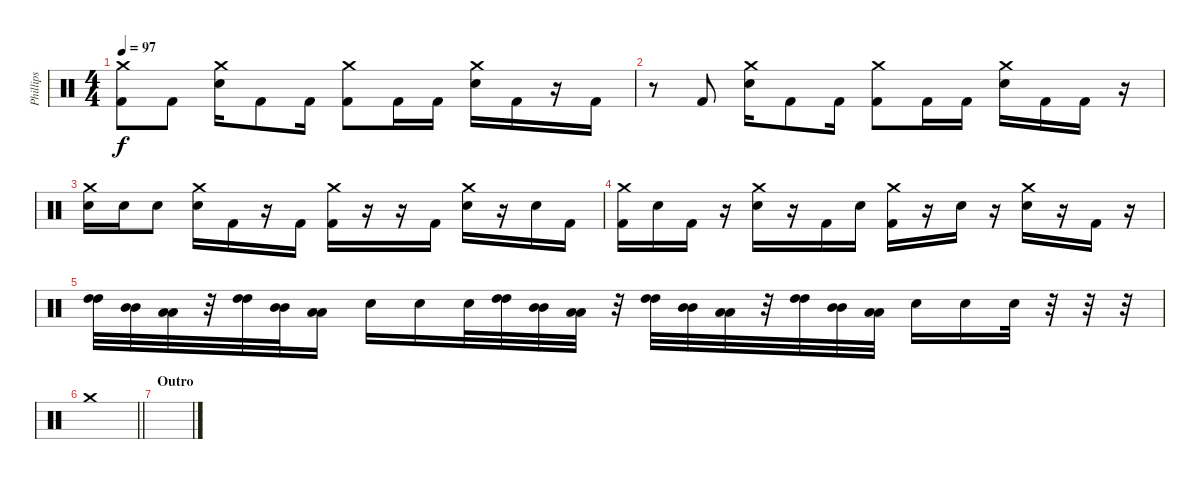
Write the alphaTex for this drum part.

\track ("Phillips" "Phillips") {instrument percussion}
\staff {score}
\articulation defaults
\ts (4 4)
\tempo 97
\clef neutral
\ks c
("Crash medium (hit)" "Kick (hit) 2").8{dy f} "Kick (hit) 2".8 ("Crash medium (hit)" "Electric Snare (hit)").16 "Kick (hit) 2".8 "Kick (hit) 2".16 ("Crash medium (hit)" "Kick (hit) 2").8 "Kick (hit) 2".16 "Kick (hit) 2".16 ("Crash medium (hit)" "Electric Snare (hit)").16 "Kick (hit) 2".16 r.16 "Kick (hit) 2".16 |
r.8 "Kick (hit) 2".8 ("Crash medium (hit)" "Electric Snare (hit)").16 "Kick (hit) 2".8 "Kick (hit) 2".16 ("Crash medium (hit)" "Kick (hit) 2").8 "Kick (hit) 2".16 "Kick (hit) 2".16 ("Crash medium (hit)" "Electric Snare (hit)").16 "Kick (hit) 2".16 "Kick (hit) 2".16 r.16 |
("Crash medium (hit)" "Electric Snare (hit)").16 "Electric Snare (hit)".16 "Electric Snare (hit)".8 ("Crash medium (hit)" "Electric Snare (hit)").16 "Kick (hit) 2".16 r.16 "Kick (hit) 2".16 ("Crash medium (hit)" "Kick (hit) 2").16 r.16 r.16 "Kick (hit) 2".16 ("Crash medium (hit)" "Electric Snare (hit)").16 r.16 "Electric Snare (hit)".16 "Kick (hit) 2".16 |
("Crash medium (hit)" "Kick (hit) 2").16 "Electric Snare (hit)".16 "Kick (hit) 2".16 r.16 ("Crash medium (hit)" "Electric Snare (hit)").16 r.16 "Kick (hit) 2".16 "Electric Snare (hit)".16 ("Crash medium (hit)" "Kick (hit) 2").16 r.16 "Electric Snare (hit)".16 r.16 ("Crash medium (hit)" "Electric Snare (hit)").16 r.16 "Kick (hit) 2".16 r.16 |
("High Tom (hit)" "High Tom (hit)").32 ("Mid Tom (hit)" "Mid Tom (hit)").32 ("Low Tom (hit)" "Low Tom (hit)").32 r.32 ("High Tom (hit)" "High Tom (hit)").32 ("Mid Tom (hit)" "Mid Tom (hit)").32 ("Low Tom (hit)" "Low Tom (hit)").16 "Electric Snare (hit)".16 "Electric Snare (hit)".16 "Electric Snare (hit)".32 ("High Tom (hit)" "High Tom (hit)").32 ("Mid Tom (hit)" "Mid Tom (hit)").32 ("Low Tom (hit)" "Low Tom (hit)").32 r.32 ("High Tom (hit)" "High Tom (hit)").32 ("Mid Tom (hit)" "Mid Tom (hit)").32 ("Low Tom (hit)" "Low Tom (hit)").32 r.32 ("High Tom (hit)" "High Tom (hit)").32 ("Mid Tom (hit)" "Mid Tom (hit)").32 ("Low Tom (hit)" "Low Tom (hit)").32 "Electric Snare (hit)".16 "Electric Snare (hit)".16 "Electric Snare (hit)".32 r.32 r.32 r.32 |
\barLineRight lightlight "Crash medium (hit)".1
|
\section ("" "Outro")
